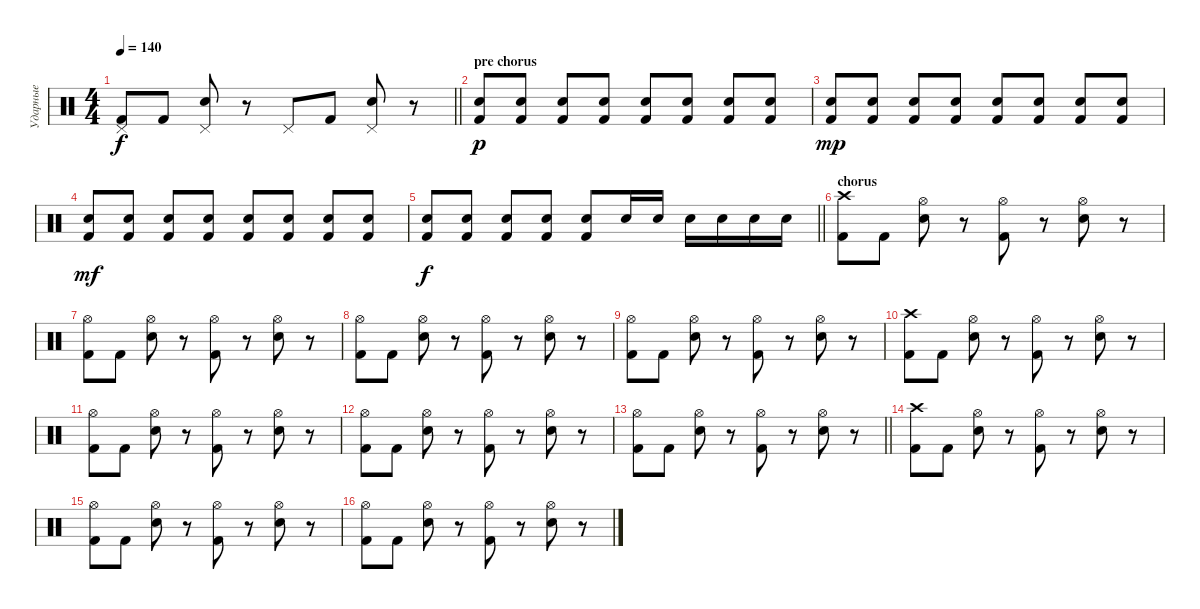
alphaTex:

\track ("Ударные" "Ударные") {instrument percussion}
\staff {score}
\articulation defaults
\ts (4 4)
\tempo 140
\clef neutral
\barLineRight lightlight
\ks c
("Pedal Hi-Hat (hit)" "Kick (hit) 2").8{dy f} "Kick (hit) 2".8 ("Pedal Hi-Hat (hit)" "Snare (hit) 2").8 r.8 "Pedal Hi-Hat (hit)".8 "Kick (hit) 2".8 ("Pedal Hi-Hat (hit)" "Snare (hit) 2").8 r.8 |
\section ("" "pre chorus")
("Snare (hit) 2" "Kick (hit) 2").8{dy p} ("Snare (hit) 2" "Kick (hit) 2").8 ("Snare (hit) 2" "Kick (hit) 2").8 ("Snare (hit) 2" "Kick (hit) 2").8 ("Snare (hit) 2" "Kick (hit) 2").8 ("Snare (hit) 2" "Kick (hit) 2").8 ("Snare (hit) 2" "Kick (hit) 2").8 ("Snare (hit) 2" "Kick (hit) 2").8 |
("Snare (hit) 2" "Kick (hit) 2").8{dy mp} ("Snare (hit) 2" "Kick (hit) 2").8 ("Snare (hit) 2" "Kick (hit) 2").8 ("Snare (hit) 2" "Kick (hit) 2").8 ("Snare (hit) 2" "Kick (hit) 2").8 ("Snare (hit) 2" "Kick (hit) 2").8 ("Snare (hit) 2" "Kick (hit) 2").8 ("Snare (hit) 2" "Kick (hit) 2").8 |
("Snare (hit) 2" "Kick (hit) 2").8{dy mf} ("Snare (hit) 2" "Kick (hit) 2").8 ("Snare (hit) 2" "Kick (hit) 2").8 ("Snare (hit) 2" "Kick (hit) 2").8 ("Snare (hit) 2" "Kick (hit) 2").8 ("Snare (hit) 2" "Kick (hit) 2").8 ("Snare (hit) 2" "Kick (hit) 2").8 ("Snare (hit) 2" "Kick (hit) 2").8 |
\barLineRight lightlight
("Snare (hit) 2" "Kick (hit) 2").8{dy f} ("Snare (hit) 2" "Kick (hit) 2").8 ("Snare (hit) 2" "Kick (hit) 2").8 ("Snare (hit) 2" "Kick (hit) 2").8 ("Snare (hit) 2" "Kick (hit) 2").8 "Snare (hit) 2".16 "Snare (hit) 2".16 "Snare (hit) 2".16 "Snare (hit) 2".16 "Snare (hit) 2".16 "Snare (hit) 2".16 |
\section ("" "chorus")
("Crash high (hit)" "Kick (hit) 2").8 "Kick (hit) 2".8 ("Hi-Hat (open)" "Snare (hit) 2").8 r.8 ("Hi-Hat (open)" "Kick (hit) 2").8 r.8 ("Hi-Hat (open)" "Snare (hit) 2").8 r.8 |
("Hi-Hat (open)" "Kick (hit) 2").8 "Kick (hit) 2".8 ("Hi-Hat (open)" "Snare (hit) 2").8 r.8 ("Hi-Hat (open)" "Kick (hit) 2").8 r.8 ("Hi-Hat (open)" "Snare (hit) 2").8 r.8 |
("Hi-Hat (open)" "Kick (hit) 2").8 "Kick (hit) 2".8 ("Hi-Hat (open)" "Snare (hit) 2").8 r.8 ("Hi-Hat (open)" "Kick (hit) 2").8 r.8 ("Hi-Hat (open)" "Snare (hit) 2").8 r.8 |
("Hi-Hat (open)" "Kick (hit) 2").8 "Kick (hit) 2".8 ("Hi-Hat (open)" "Snare (hit) 2").8 r.8 ("Hi-Hat (open)" "Kick (hit) 2").8 r.8 ("Hi-Hat (open)" "Snare (hit) 2").8 r.8 |
("Crash high (hit)" "Kick (hit) 2").8 "Kick (hit) 2".8 ("Hi-Hat (open)" "Snare (hit) 2").8 r.8 ("Hi-Hat (open)" "Kick (hit) 2").8 r.8 ("Hi-Hat (open)" "Snare (hit) 2").8 r.8 |
("Hi-Hat (open)" "Kick (hit) 2").8 "Kick (hit) 2".8 ("Hi-Hat (open)" "Snare (hit) 2").8 r.8 ("Hi-Hat (open)" "Kick (hit) 2").8 r.8 ("Hi-Hat (open)" "Snare (hit) 2").8 r.8 |
("Hi-Hat (open)" "Kick (hit) 2").8 "Kick (hit) 2".8 ("Hi-Hat (open)" "Snare (hit) 2").8 r.8 ("Hi-Hat (open)" "Kick (hit) 2").8 r.8 ("Hi-Hat (open)" "Snare (hit) 2").8 r.8 |
\barLineRight lightlight
("Hi-Hat (open)" "Kick (hit) 2").8 "Kick (hit) 2".8 ("Hi-Hat (open)" "Snare (hit) 2").8 r.8 ("Hi-Hat (open)" "Kick (hit) 2").8 r.8 ("Hi-Hat (open)" "Snare (hit) 2").8 r.8 |
("Crash high (hit)" "Kick (hit) 2").8 "Kick (hit) 2".8 ("Hi-Hat (open)" "Snare (hit) 2").8 r.8 ("Hi-Hat (open)" "Kick (hit) 2").8 r.8 ("Hi-Hat (open)" "Snare (hit) 2").8 r.8 |
("Hi-Hat (open)" "Kick (hit) 2").8 "Kick (hit) 2".8 ("Hi-Hat (open)" "Snare (hit) 2").8 r.8 ("Hi-Hat (open)" "Kick (hit) 2").8 r.8 ("Hi-Hat (open)" "Snare (hit) 2").8 r.8 |
("Hi-Hat (open)" "Kick (hit) 2").8 "Kick (hit) 2".8 ("Hi-Hat (open)" "Snare (hit) 2").8 r.8 ("Hi-Hat (open)" "Kick (hit) 2").8 r.8 ("Hi-Hat (open)" "Snare (hit) 2").8 r.8
